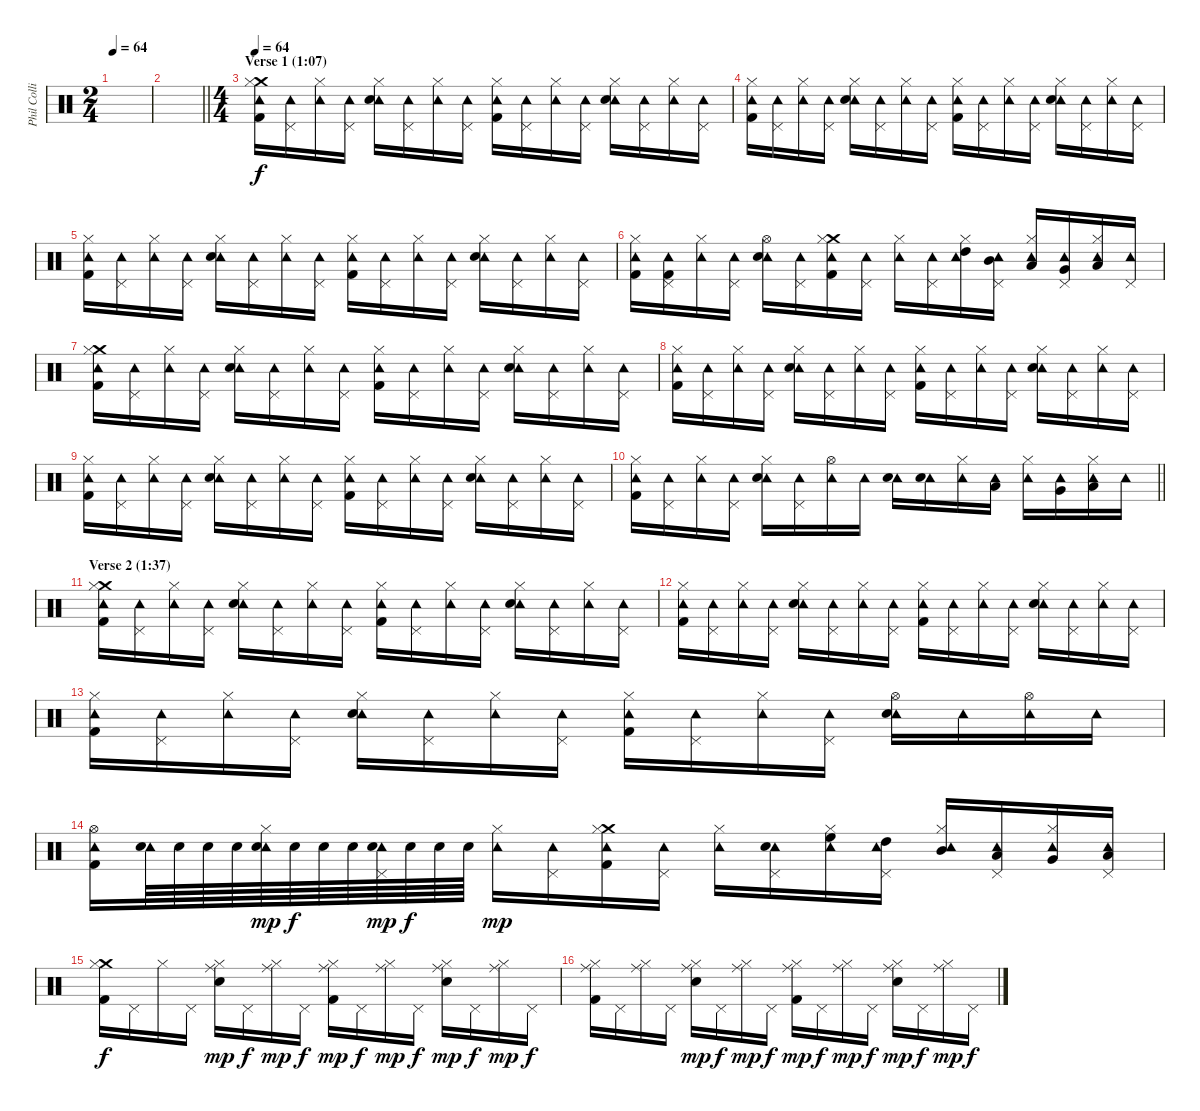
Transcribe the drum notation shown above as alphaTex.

\track ("Phil Collins (drums)" "Phil Colli") {instrument percussion}
\staff {score}
\articulation defaults
\ts (2 4)
\tempo 64
\clef neutral
\ks c
|
\barLineRight lightlight
|
\ts (4 4)
\section ("" "Verse 1 (1:07)")
\tempo 64
("Crash medium (hit)" "Tambourine (hit)" "Hi-Hat (closed)" "Kick (hit) 2").16 ("Tambourine (hit)" "Pedal Hi-Hat (hit)").16 ("Tambourine (hit)" "Hi-Hat (closed)").16 ("Tambourine (hit)" "Pedal Hi-Hat (hit)").16 ("Tambourine (hit)" "Hi-Hat (closed)" "Electric Snare (hit)").16 ("Tambourine (hit)" "Pedal Hi-Hat (hit)").16 ("Tambourine (hit)" "Hi-Hat (closed)").16 ("Tambourine (hit)" "Pedal Hi-Hat (hit)").16 ("Tambourine (hit)" "Hi-Hat (closed)" "Kick (hit) 2").16 ("Tambourine (hit)" "Pedal Hi-Hat (hit)").16 ("Tambourine (hit)" "Hi-Hat (closed)").16 ("Tambourine (hit)" "Pedal Hi-Hat (hit)").16 ("Tambourine (hit)" "Hi-Hat (closed)" "Electric Snare (hit)").16 ("Tambourine (hit)" "Pedal Hi-Hat (hit)").16 ("Tambourine (hit)" "Hi-Hat (closed)").16 ("Tambourine (hit)" "Pedal Hi-Hat (hit)").16 |
("Tambourine (hit)" "Hi-Hat (closed)" "Kick (hit) 2").16 ("Tambourine (hit)" "Pedal Hi-Hat (hit)").16 ("Tambourine (hit)" "Hi-Hat (closed)").16 ("Tambourine (hit)" "Pedal Hi-Hat (hit)").16 ("Tambourine (hit)" "Hi-Hat (closed)" "Electric Snare (hit)").16 ("Tambourine (hit)" "Pedal Hi-Hat (hit)").16 ("Tambourine (hit)" "Hi-Hat (closed)").16 ("Tambourine (hit)" "Pedal Hi-Hat (hit)").16 ("Tambourine (hit)" "Hi-Hat (closed)" "Kick (hit) 2").16 ("Tambourine (hit)" "Pedal Hi-Hat (hit)").16 ("Tambourine (hit)" "Hi-Hat (closed)").16 ("Tambourine (hit)" "Pedal Hi-Hat (hit)").16 ("Tambourine (hit)" "Hi-Hat (closed)" "Electric Snare (hit)").16 ("Tambourine (hit)" "Pedal Hi-Hat (hit)").16 ("Tambourine (hit)" "Hi-Hat (closed)").16 ("Tambourine (hit)" "Pedal Hi-Hat (hit)").16 |
("Tambourine (hit)" "Hi-Hat (closed)" "Kick (hit) 2").16 ("Tambourine (hit)" "Pedal Hi-Hat (hit)").16 ("Tambourine (hit)" "Hi-Hat (closed)").16 ("Tambourine (hit)" "Pedal Hi-Hat (hit)").16 ("Tambourine (hit)" "Hi-Hat (closed)" "Electric Snare (hit)").16 ("Tambourine (hit)" "Pedal Hi-Hat (hit)").16 ("Tambourine (hit)" "Hi-Hat (closed)").16 ("Tambourine (hit)" "Pedal Hi-Hat (hit)").16 ("Tambourine (hit)" "Hi-Hat (closed)" "Kick (hit) 2").16 ("Tambourine (hit)" "Pedal Hi-Hat (hit)").16 ("Tambourine (hit)" "Hi-Hat (closed)").16 ("Tambourine (hit)" "Pedal Hi-Hat (hit)").16 ("Tambourine (hit)" "Hi-Hat (closed)" "Electric Snare (hit)").16 ("Tambourine (hit)" "Pedal Hi-Hat (hit)").16 ("Tambourine (hit)" "Hi-Hat (closed)").16 ("Tambourine (hit)" "Pedal Hi-Hat (hit)").16 |
("Tambourine (hit)" "Hi-Hat (closed)" "Kick (hit) 2").16 ("Tambourine (hit)" "Pedal Hi-Hat (hit)" "Kick (hit) 2").16 ("Tambourine (hit)" "Hi-Hat (closed)").16 ("Tambourine (hit)" "Pedal Hi-Hat (hit)").16 ("Tambourine (hit)" "Hi-Hat (open)" "Electric Snare (hit)").16 ("Tambourine (hit)" "Pedal Hi-Hat (hit)").16 ("Crash medium (hit)" "Tambourine (hit)" "Hi-Hat (closed)" "Kick (hit) 2").16 ("Tambourine (hit)" "Pedal Hi-Hat (hit)").16 ("Tambourine (hit)" "Hi-Hat (closed)").16 ("Tambourine (hit)" "Pedal Hi-Hat (hit)").16 ("Tambourine (hit)" "Hi-Hat (closed)" "High Tom (hit)").16 ("Tambourine (hit)" "Pedal Hi-Hat (hit)" "Mid Tom (hit)").16 ("Tambourine (hit)" "Hi-Hat (closed)" "Low Tom (hit)").16 ("Tambourine (hit)" "Pedal Hi-Hat (hit)" "Very Low Tom (hit)").16 ("Tambourine (hit)" "Hi-Hat (closed)" "Low Floor Tom (hit)").16 ("Tambourine (hit)" "Pedal Hi-Hat (hit)").16 |
("Crash medium (hit)" "Tambourine (hit)" "Hi-Hat (closed)" "Kick (hit) 2").16 ("Tambourine (hit)" "Pedal Hi-Hat (hit)").16 ("Tambourine (hit)" "Hi-Hat (closed)").16 ("Tambourine (hit)" "Pedal Hi-Hat (hit)").16 ("Tambourine (hit)" "Hi-Hat (closed)" "Electric Snare (hit)").16 ("Tambourine (hit)" "Pedal Hi-Hat (hit)").16 ("Tambourine (hit)" "Hi-Hat (closed)").16 ("Tambourine (hit)" "Pedal Hi-Hat (hit)").16 ("Tambourine (hit)" "Hi-Hat (closed)" "Kick (hit) 2").16 ("Tambourine (hit)" "Pedal Hi-Hat (hit)").16 ("Tambourine (hit)" "Hi-Hat (closed)").16 ("Tambourine (hit)" "Pedal Hi-Hat (hit)").16 ("Tambourine (hit)" "Hi-Hat (closed)" "Electric Snare (hit)").16 ("Tambourine (hit)" "Pedal Hi-Hat (hit)").16 ("Tambourine (hit)" "Hi-Hat (closed)").16 ("Tambourine (hit)" "Pedal Hi-Hat (hit)").16 |
("Tambourine (hit)" "Hi-Hat (closed)" "Kick (hit) 2").16 ("Tambourine (hit)" "Pedal Hi-Hat (hit)").16 ("Tambourine (hit)" "Hi-Hat (closed)").16 ("Tambourine (hit)" "Pedal Hi-Hat (hit)").16 ("Tambourine (hit)" "Hi-Hat (closed)" "Electric Snare (hit)").16 ("Tambourine (hit)" "Pedal Hi-Hat (hit)").16 ("Tambourine (hit)" "Hi-Hat (closed)").16 ("Tambourine (hit)" "Pedal Hi-Hat (hit)").16 ("Tambourine (hit)" "Hi-Hat (closed)" "Kick (hit) 2").16 ("Tambourine (hit)" "Pedal Hi-Hat (hit)").16 ("Tambourine (hit)" "Hi-Hat (closed)").16 ("Tambourine (hit)" "Pedal Hi-Hat (hit)").16 ("Tambourine (hit)" "Hi-Hat (closed)" "Electric Snare (hit)").16 ("Tambourine (hit)" "Pedal Hi-Hat (hit)").16 ("Tambourine (hit)" "Hi-Hat (closed)").16 ("Tambourine (hit)" "Pedal Hi-Hat (hit)").16 |
("Tambourine (hit)" "Hi-Hat (closed)" "Kick (hit) 2").16 ("Tambourine (hit)" "Pedal Hi-Hat (hit)").16 ("Tambourine (hit)" "Hi-Hat (closed)").16 ("Tambourine (hit)" "Pedal Hi-Hat (hit)").16 ("Tambourine (hit)" "Hi-Hat (closed)" "Electric Snare (hit)").16 ("Tambourine (hit)" "Pedal Hi-Hat (hit)").16 ("Tambourine (hit)" "Hi-Hat (closed)").16 ("Tambourine (hit)" "Pedal Hi-Hat (hit)").16 ("Tambourine (hit)" "Hi-Hat (closed)" "Kick (hit) 2").16 ("Tambourine (hit)" "Pedal Hi-Hat (hit)").16 ("Tambourine (hit)" "Hi-Hat (closed)").16 ("Tambourine (hit)" "Pedal Hi-Hat (hit)").16 ("Tambourine (hit)" "Hi-Hat (closed)" "Electric Snare (hit)").16 ("Tambourine (hit)" "Pedal Hi-Hat (hit)").16 ("Tambourine (hit)" "Hi-Hat (closed)").16 ("Tambourine (hit)" "Pedal Hi-Hat (hit)").16 |
\barLineRight lightlight
("Tambourine (hit)" "Hi-Hat (closed)" "Kick (hit) 2").16 ("Tambourine (hit)" "Pedal Hi-Hat (hit)").16 ("Tambourine (hit)" "Hi-Hat (closed)").16 ("Tambourine (hit)" "Pedal Hi-Hat (hit)").16 ("Tambourine (hit)" "Hi-Hat (closed)" "Electric Snare (hit)").16 ("Tambourine (hit)" "Pedal Hi-Hat (hit)").16 ("Tambourine (hit)" "Hi-Hat (open)").16 "Tambourine (hit)".16 ("Tambourine (hit)" "Electric Snare (hit)").16 ("Tambourine (hit)" "Electric Snare (hit)").16 ("Tambourine (hit)" "Hi-Hat (closed)").16 ("Tambourine (hit)" "Low Tom (hit)").16 ("Tambourine (hit)" "Hi-Hat (closed)").16 ("Tambourine (hit)" "Very Low Tom (hit)").16 ("Tambourine (hit)" "Hi-Hat (closed)" "Low Floor Tom (hit)").16 "Tambourine (hit)".16 |
\section ("" "Verse 2 (1:37)")
("Crash medium (hit)" "Tambourine (hit)" "Hi-Hat (closed)" "Kick (hit) 2").16 ("Tambourine (hit)" "Pedal Hi-Hat (hit)").16 ("Tambourine (hit)" "Hi-Hat (closed)").16 ("Tambourine (hit)" "Pedal Hi-Hat (hit)").16 ("Tambourine (hit)" "Hi-Hat (closed)" "Electric Snare (hit)").16 ("Tambourine (hit)" "Pedal Hi-Hat (hit)").16 ("Tambourine (hit)" "Hi-Hat (closed)").16 ("Tambourine (hit)" "Pedal Hi-Hat (hit)").16 ("Tambourine (hit)" "Hi-Hat (closed)" "Kick (hit) 2").16 ("Tambourine (hit)" "Pedal Hi-Hat (hit)").16 ("Tambourine (hit)" "Hi-Hat (closed)").16 ("Tambourine (hit)" "Pedal Hi-Hat (hit)").16 ("Tambourine (hit)" "Hi-Hat (closed)" "Electric Snare (hit)").16 ("Tambourine (hit)" "Pedal Hi-Hat (hit)").16 ("Tambourine (hit)" "Hi-Hat (closed)").16 ("Tambourine (hit)" "Pedal Hi-Hat (hit)").16 |
("Tambourine (hit)" "Hi-Hat (closed)" "Kick (hit) 2").16 ("Tambourine (hit)" "Pedal Hi-Hat (hit)").16 ("Tambourine (hit)" "Hi-Hat (closed)").16 ("Tambourine (hit)" "Pedal Hi-Hat (hit)").16 ("Tambourine (hit)" "Hi-Hat (closed)" "Electric Snare (hit)").16 ("Tambourine (hit)" "Pedal Hi-Hat (hit)").16 ("Tambourine (hit)" "Hi-Hat (closed)").16 ("Tambourine (hit)" "Pedal Hi-Hat (hit)").16 ("Tambourine (hit)" "Hi-Hat (closed)" "Kick (hit) 2").16 ("Tambourine (hit)" "Pedal Hi-Hat (hit)").16 ("Tambourine (hit)" "Hi-Hat (closed)").16 ("Tambourine (hit)" "Pedal Hi-Hat (hit)").16 ("Tambourine (hit)" "Hi-Hat (closed)" "Electric Snare (hit)").16 ("Tambourine (hit)" "Pedal Hi-Hat (hit)").16 ("Tambourine (hit)" "Hi-Hat (closed)").16 ("Tambourine (hit)" "Pedal Hi-Hat (hit)").16 |
("Tambourine (hit)" "Hi-Hat (closed)" "Kick (hit) 2").16 ("Tambourine (hit)" "Pedal Hi-Hat (hit)").16 ("Tambourine (hit)" "Hi-Hat (closed)").16 ("Tambourine (hit)" "Pedal Hi-Hat (hit)").16 ("Tambourine (hit)" "Hi-Hat (closed)" "Electric Snare (hit)").16 ("Tambourine (hit)" "Pedal Hi-Hat (hit)").16 ("Tambourine (hit)" "Hi-Hat (closed)").16 ("Tambourine (hit)" "Pedal Hi-Hat (hit)").16 ("Tambourine (hit)" "Hi-Hat (closed)" "Kick (hit) 2").16 ("Tambourine (hit)" "Pedal Hi-Hat (hit)").16 ("Tambourine (hit)" "Hi-Hat (closed)").16 ("Tambourine (hit)" "Pedal Hi-Hat (hit)").16 ("Tambourine (hit)" "Hi-Hat (open)" "Electric Snare (hit)").16 "Tambourine (hit)".16 ("Tambourine (hit)" "Hi-Hat (open)").16 "Tambourine (hit)".16 |
("Tambourine (hit)" "Hi-Hat (open)" "Kick (hit) 2").16 ("Tambourine (hit)" "Electric Snare (hit)").64 "Electric Snare (hit)".64{dy f} "Electric Snare (hit)".64 "Electric Snare (hit)".64 ("Tambourine (hit)" "Hi-Hat (closed)" "Electric Snare (hit)").64{dy mp} "Electric Snare (hit)".64{dy f} "Electric Snare (hit)".64 "Electric Snare (hit)".64 ("Tambourine (hit)" "Pedal Hi-Hat (hit)" "Electric Snare (hit)").64{dy mp} "Electric Snare (hit)".64{dy f} "Electric Snare (hit)".64 "Electric Snare (hit)".64 ("Tambourine (hit)" "Hi-Hat (closed)").16{dy mp} ("Tambourine (hit)" "Pedal Hi-Hat (hit)").16 ("Crash medium (hit)" "Tambourine (hit)" "Hi-Hat (closed)" "Kick (hit) 2").16 ("Tambourine (hit)" "Pedal Hi-Hat (hit)").16 ("Tambourine (hit)" "Hi-Hat (closed)").16 ("Tambourine (hit)" "Pedal Hi-Hat (hit)" "Electric Snare (hit)").16 ("Tambourine (hit)" "Hi-Hat (closed)" "High Floor Tom (hit)").16 ("Tambourine (hit)" "Pedal Hi-Hat (hit)" "High Tom (hit)").16 ("Tambourine (hit)" "Hi-Hat (closed)" "Mid Tom (hit)").16 ("Tambourine (hit)" "Pedal Hi-Hat (hit)" "Low Tom (hit)").16 ("Tambourine (hit)" "Hi-Hat (closed)" "Very Low Tom (hit)").16 ("Tambourine (hit)" "Pedal Hi-Hat (hit)" "Low Floor Tom (hit)").16 |
("Crash medium (hit)" "Hi-Hat (closed)" "Kick (hit) 2").16{dy f} "Pedal Hi-Hat (hit)".16 "Hi-Hat (closed)".16 "Pedal Hi-Hat (hit)".16 ("Ride (middle)" "Hi-Hat (closed)" "Electric Snare (hit)").16{dy mp} "Pedal Hi-Hat (hit)".16{dy f} ("Ride (middle)" "Hi-Hat (closed)").16{dy mp} "Pedal Hi-Hat (hit)".16{dy f} ("Ride (middle)" "Hi-Hat (closed)" "Kick (hit) 2").16{dy mp} "Pedal Hi-Hat (hit)".16{dy f} ("Ride (middle)" "Hi-Hat (closed)").16{dy mp} "Pedal Hi-Hat (hit)".16{dy f} ("Ride (middle)" "Hi-Hat (closed)" "Electric Snare (hit)").16{dy mp} "Pedal Hi-Hat (hit)".16{dy f} ("Ride (middle)" "Hi-Hat (closed)").16{dy mp} "Pedal Hi-Hat (hit)".16{dy f} |
("Ride (middle)" "Hi-Hat (closed)" "Kick (hit) 2").16 "Pedal Hi-Hat (hit)".16 ("Ride (middle)" "Hi-Hat (closed)").16 "Pedal Hi-Hat (hit)".16 ("Ride (middle)" "Hi-Hat (closed)" "Electric Snare (hit)").16{dy mp} "Pedal Hi-Hat (hit)".16{dy f} ("Ride (middle)" "Hi-Hat (closed)").16{dy mp} "Pedal Hi-Hat (hit)".16{dy f} ("Ride (middle)" "Hi-Hat (closed)" "Kick (hit) 2").16{dy mp} "Pedal Hi-Hat (hit)".16{dy f} ("Ride (middle)" "Hi-Hat (closed)").16{dy mp} "Pedal Hi-Hat (hit)".16{dy f} ("Ride (middle)" "Hi-Hat (closed)" "Electric Snare (hit)").16{dy mp} "Pedal Hi-Hat (hit)".16{dy f} ("Ride (middle)" "Hi-Hat (closed)").16{dy mp} "Pedal Hi-Hat (hit)".16{dy f}
